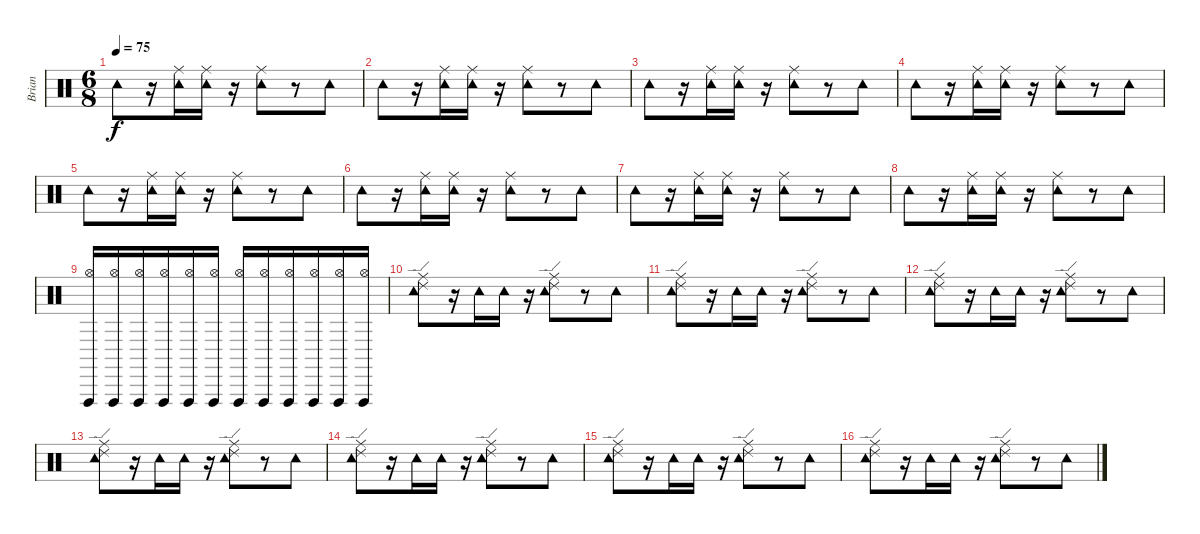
\track ("Brian" "Brian") {instrument percussion}
\staff {score}
\articulation defaults
\ts (6 8)
\tempo 75
\clef neutral
\ks c "Tambourine (hit)".8{dy f}
r.16 ("Tambourine (hit)" "Ride (middle)").16 ("Tambourine (hit)" "Ride (middle)").16 r.16 ("Tambourine (hit)" "Ride (middle)").8 r.8 "Tambourine (hit)".8 |
"Tambourine (hit)".8 r.16 ("Tambourine (hit)" "Ride (middle)").16 ("Tambourine (hit)" "Ride (middle)").16 r.16 ("Tambourine (hit)" "Ride (middle)").8 r.8 "Tambourine (hit)".8 |
"Tambourine (hit)".8 r.16 ("Tambourine (hit)" "Ride (middle)").16 ("Tambourine (hit)" "Ride (middle)").16 r.16 ("Tambourine (hit)" "Ride (middle)").8 r.8 "Tambourine (hit)".8 |
"Tambourine (hit)".8 r.16 ("Tambourine (hit)" "Ride (middle)").16 ("Tambourine (hit)" "Ride (middle)").16 r.16 ("Tambourine (hit)" "Ride (middle)").8 r.8 "Tambourine (hit)".8 |
"Tambourine (hit)".8 r.16 ("Tambourine (hit)" "Ride (middle)").16 ("Tambourine (hit)" "Ride (middle)").16 r.16 ("Tambourine (hit)" "Ride (middle)").8 r.8 "Tambourine (hit)".8 |
"Tambourine (hit)".8 r.16 ("Tambourine (hit)" "Ride (middle)").16 ("Tambourine (hit)" "Ride (middle)").16 r.16 ("Tambourine (hit)" "Ride (middle)").8 r.8 "Tambourine (hit)".8 |
"Tambourine (hit)".8 r.16 ("Tambourine (hit)" "Ride (middle)").16 ("Tambourine (hit)" "Ride (middle)").16 r.16 ("Tambourine (hit)" "Ride (middle)").8 r.8 "Tambourine (hit)".8 |
"Tambourine (hit)".8 r.16 ("Tambourine (hit)" "Ride (middle)").16 ("Tambourine (hit)" "Ride (middle)").16 r.16 ("Tambourine (hit)" "Ride (middle)").8 r.8 "Tambourine (hit)".8 |
("Hi-Hat (open)" "Vibraslap (hit)").16{volume 4 balance 16} ("Hi-Hat (open)" "Vibraslap (hit)").16 ("Hi-Hat (open)" "Vibraslap (hit)").16 ("Hi-Hat (open)" "Vibraslap (hit)").16 ("Hi-Hat (open)" "Vibraslap (hit)").16 ("Hi-Hat (open)" "Vibraslap (hit)").16 ("Hi-Hat (open)" "Vibraslap (hit)").16 ("Hi-Hat (open)" "Vibraslap (hit)").16 ("Hi-Hat (open)" "Vibraslap (hit)").16 ("Hi-Hat (open)" "Vibraslap (hit)").16 ("Hi-Hat (open)" "Vibraslap (hit)").16 ("Hi-Hat (open)" "Vibraslap (hit)").16{volume 10 balance 8} |
("Tambourine (hit)" "Ride (middle)" "Ride (edge) 2").8 r.16 "Tambourine (hit)".16 "Tambourine (hit)".16 r.16 ("Tambourine (hit)" "Ride (middle)" "Ride (edge) 2").8 r.8 "Tambourine (hit)".8 |
("Tambourine (hit)" "Ride (middle)" "Ride (edge) 2").8 r.16 "Tambourine (hit)".16 "Tambourine (hit)".16 r.16 ("Tambourine (hit)" "Ride (middle)" "Ride (edge) 2").8 r.8 "Tambourine (hit)".8 |
("Tambourine (hit)" "Ride (middle)" "Ride (edge) 2").8 r.16 "Tambourine (hit)".16 "Tambourine (hit)".16 r.16 ("Tambourine (hit)" "Ride (middle)" "Ride (edge) 2").8 r.8 "Tambourine (hit)".8 |
("Tambourine (hit)" "Ride (middle)" "Ride (edge) 2").8 r.16 "Tambourine (hit)".16 "Tambourine (hit)".16 r.16 ("Tambourine (hit)" "Ride (middle)" "Ride (edge) 2").8 r.8 "Tambourine (hit)".8 |
("Tambourine (hit)" "Ride (middle)" "Ride (edge) 2").8 r.16 "Tambourine (hit)".16 "Tambourine (hit)".16 r.16 ("Tambourine (hit)" "Ride (middle)" "Ride (edge) 2").8 r.8 "Tambourine (hit)".8 |
("Tambourine (hit)" "Ride (middle)" "Ride (edge) 2").8 r.16 "Tambourine (hit)".16 "Tambourine (hit)".16 r.16 ("Tambourine (hit)" "Ride (middle)" "Ride (edge) 2").8 r.8 "Tambourine (hit)".8 |
("Tambourine (hit)" "Ride (middle)" "Ride (edge) 2").8 r.16 "Tambourine (hit)".16 "Tambourine (hit)".16 r.16 ("Tambourine (hit)" "Ride (middle)" "Ride (edge) 2").8 r.8 "Tambourine (hit)".8
